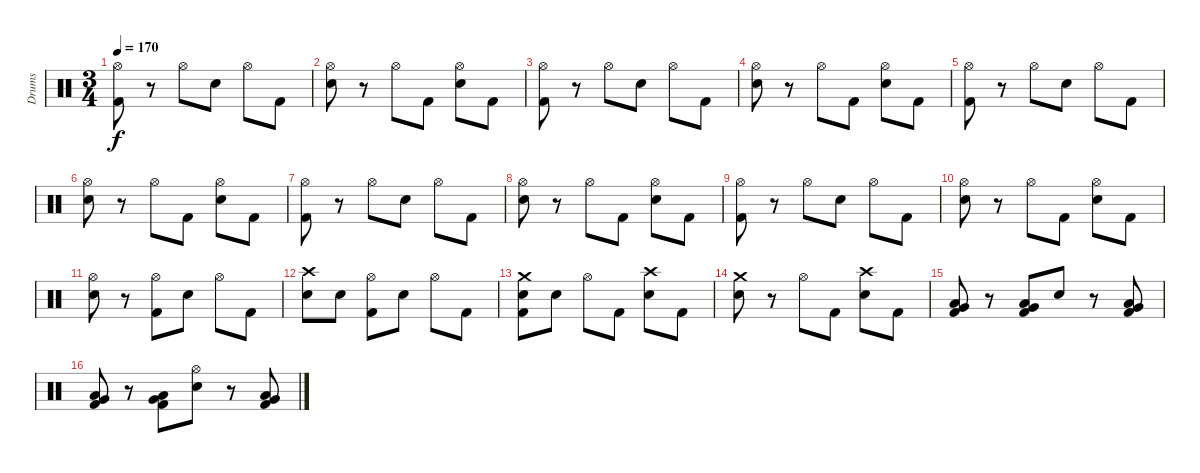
\track ("Drums" "Drums") {instrument percussion}
\staff {score}
\articulation defaults
\ts (3 4)
\tempo 170
\clef neutral
\ks c
("Hi-Hat (open)" "Kick (hit) 2").8{dy f} r.8 "Hi-Hat (open)".8 "Snare (hit) 2".8 "Hi-Hat (open)".8 "Kick (hit) 2".8 |
("Hi-Hat (open)" "Snare (hit) 2").8 r.8 "Hi-Hat (open)".8 "Kick (hit) 2".8 ("Hi-Hat (open)" "Snare (hit) 2").8 "Kick (hit) 2".8 |
("Hi-Hat (open)" "Kick (hit) 2").8 r.8 "Hi-Hat (open)".8 "Snare (hit) 2".8 "Hi-Hat (open)".8 "Kick (hit) 2".8 |
("Hi-Hat (open)" "Snare (hit) 2").8 r.8 "Hi-Hat (open)".8 "Kick (hit) 2".8 ("Hi-Hat (open)" "Snare (hit) 2").8 "Kick (hit) 2".8 |
("Hi-Hat (open)" "Kick (hit) 2").8 r.8 "Hi-Hat (open)".8 "Snare (hit) 2".8 "Hi-Hat (open)".8 "Kick (hit) 2".8 |
("Hi-Hat (open)" "Snare (hit) 2").8 r.8 "Hi-Hat (open)".8 "Kick (hit) 2".8 ("Hi-Hat (open)" "Snare (hit) 2").8 "Kick (hit) 2".8 |
("Hi-Hat (open)" "Kick (hit) 2").8 r.8 "Hi-Hat (open)".8 "Snare (hit) 2".8 "Hi-Hat (open)".8 "Kick (hit) 2".8 |
("Hi-Hat (open)" "Snare (hit) 2").8 r.8 "Hi-Hat (open)".8 "Kick (hit) 2".8 ("Hi-Hat (open)" "Snare (hit) 2").8 "Kick (hit) 2".8 |
("Hi-Hat (open)" "Kick (hit) 2").8 r.8 "Hi-Hat (open)".8 "Snare (hit) 2".8 "Hi-Hat (open)".8 "Kick (hit) 2".8 |
("Hi-Hat (open)" "Snare (hit) 2").8 r.8 "Hi-Hat (open)".8 "Kick (hit) 2".8 ("Hi-Hat (open)" "Snare (hit) 2").8 "Kick (hit) 2".8 |
("Hi-Hat (open)" "Snare (hit) 2").8 r.8 ("Hi-Hat (open)" "Kick (hit) 2").8 "Snare (hit) 2".8 "Hi-Hat (open)".8 "Kick (hit) 2".8 |
("Crash high (hit)" "Snare (hit) 2").8 "Snare (hit) 2".8 ("Hi-Hat (open)" "Kick (hit) 2").8 "Snare (hit) 2".8 "Hi-Hat (open)".8 "Kick (hit) 2".8 |
("Crash medium (hit)" "Snare (hit) 2" "Kick (hit) 2").8 "Snare (hit) 2".8 "Hi-Hat (open)".8 "Kick (hit) 2".8 ("Crash high (hit)" "Snare (hit) 2").8 "Kick (hit) 2".8 |
("Crash medium (hit)" "Snare (hit) 2").8 r.8 "Hi-Hat (open)".8 "Kick (hit) 2".8 ("Crash high (hit)" "Snare (hit) 2").8 "Kick (hit) 2".8 |
("Very Low Tom (hit)" "Low Tom (hit)" "Kick (hit) 2").8 r.8 ("Very Low Tom (hit)" "Low Tom (hit)" "Kick (hit) 2").8 "Snare (hit) 2".8 r.8 ("Very Low Tom (hit)" "Low Tom (hit)" "Kick (hit) 2").8 |
("Very Low Tom (hit)" "Low Tom (hit)" "Kick (hit) 2").8 r.8 ("Very Low Tom (hit)" "Low Tom (hit)" "Kick (hit) 2").8 ("Hi-Hat (open)" "Snare (hit) 2").8 r.8 ("Very Low Tom (hit)" "Low Tom (hit)" "Kick (hit) 2").8
